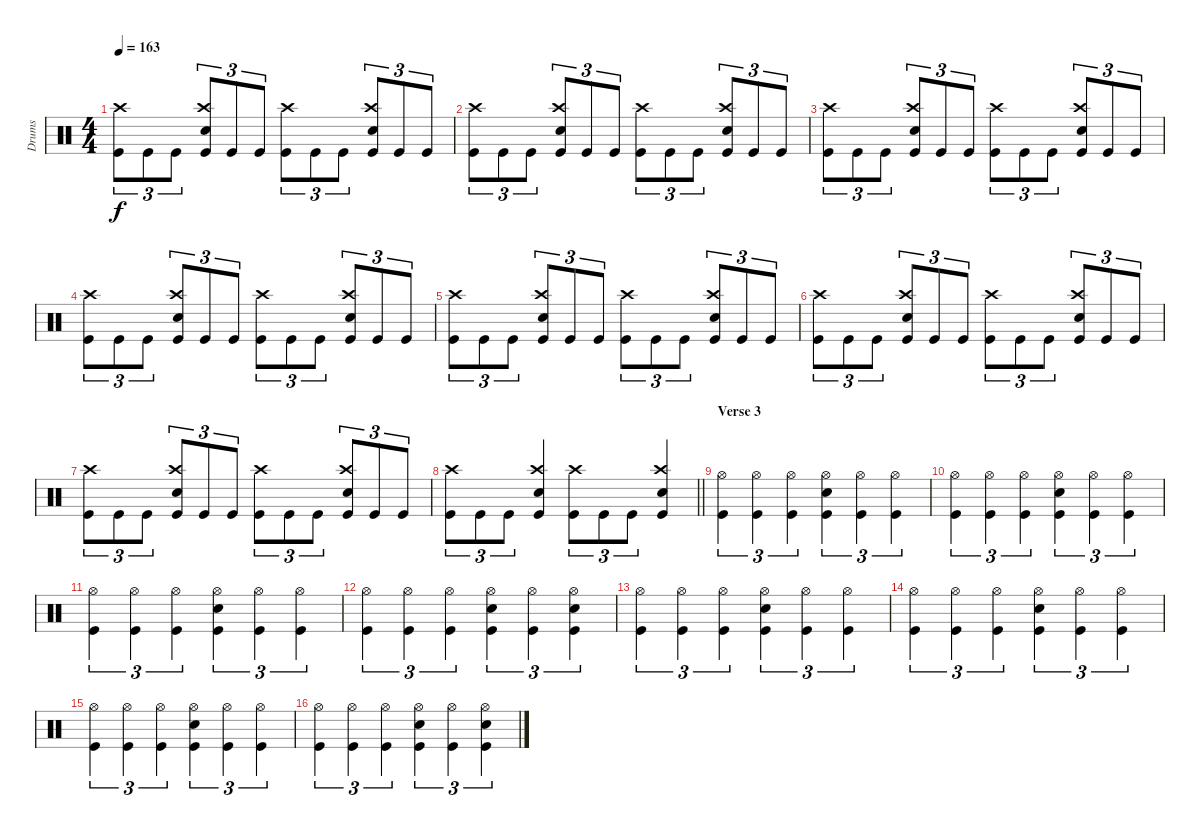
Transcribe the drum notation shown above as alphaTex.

\track ("Drums" "Drums") {instrument percussion}
\staff {score}
\articulation defaults
\ts (4 4)
\tempo 163
\clef neutral
\ks c
("Kick (hit)" "Crash high (hit)").8{tu (3 2) dy f} "Kick (hit)".8{tu (3 2)} "Kick (hit)".8{tu (3 2)} ("Kick (hit)" "Snare (hit) 2" "Crash high (hit)").8{tu (3 2)} "Kick (hit)".8{tu (3 2)} "Kick (hit)".8{tu (3 2)} ("Kick (hit)" "Crash high (hit)").8{tu (3 2)} "Kick (hit)".8{tu (3 2)} "Kick (hit)".8{tu (3 2)} ("Kick (hit)" "Snare (hit) 2" "Crash high (hit)").8{tu (3 2)} "Kick (hit)".8{tu (3 2)} "Kick (hit)".8{tu (3 2)} |
("Kick (hit)" "Crash high (hit)").8{tu (3 2)} "Kick (hit)".8{tu (3 2)} "Kick (hit)".8{tu (3 2)} ("Kick (hit)" "Snare (hit) 2" "Crash high (hit)").8{tu (3 2)} "Kick (hit)".8{tu (3 2)} "Kick (hit)".8{tu (3 2)} ("Kick (hit)" "Crash high (hit)").8{tu (3 2)} "Kick (hit)".8{tu (3 2)} "Kick (hit)".8{tu (3 2)} ("Kick (hit)" "Snare (hit) 2" "Crash high (hit)").8{tu (3 2)} "Kick (hit)".8{tu (3 2)} "Kick (hit)".8{tu (3 2)} |
("Kick (hit)" "Crash high (hit)").8{tu (3 2)} "Kick (hit)".8{tu (3 2)} "Kick (hit)".8{tu (3 2)} ("Kick (hit)" "Snare (hit) 2" "Crash high (hit)").8{tu (3 2)} "Kick (hit)".8{tu (3 2)} "Kick (hit)".8{tu (3 2)} ("Kick (hit)" "Crash high (hit)").8{tu (3 2)} "Kick (hit)".8{tu (3 2)} "Kick (hit)".8{tu (3 2)} ("Kick (hit)" "Snare (hit) 2" "Crash high (hit)").8{tu (3 2)} "Kick (hit)".8{tu (3 2)} "Kick (hit)".8{tu (3 2)} |
("Kick (hit)" "Crash high (hit)").8{tu (3 2)} "Kick (hit)".8{tu (3 2)} "Kick (hit)".8{tu (3 2)} ("Kick (hit)" "Snare (hit) 2" "Crash high (hit)").8{tu (3 2)} "Kick (hit)".8{tu (3 2)} "Kick (hit)".8{tu (3 2)} ("Kick (hit)" "Crash high (hit)").8{tu (3 2)} "Kick (hit)".8{tu (3 2)} "Kick (hit)".8{tu (3 2)} ("Kick (hit)" "Snare (hit) 2" "Crash high (hit)").8{tu (3 2)} "Kick (hit)".8{tu (3 2)} "Kick (hit)".8{tu (3 2)} |
("Kick (hit)" "Crash high (hit)").8{tu (3 2)} "Kick (hit)".8{tu (3 2)} "Kick (hit)".8{tu (3 2)} ("Kick (hit)" "Snare (hit) 2" "Crash high (hit)").8{tu (3 2)} "Kick (hit)".8{tu (3 2)} "Kick (hit)".8{tu (3 2)} ("Kick (hit)" "Crash high (hit)").8{tu (3 2)} "Kick (hit)".8{tu (3 2)} "Kick (hit)".8{tu (3 2)} ("Kick (hit)" "Snare (hit) 2" "Crash high (hit)").8{tu (3 2)} "Kick (hit)".8{tu (3 2)} "Kick (hit)".8{tu (3 2)} |
("Kick (hit)" "Crash high (hit)").8{tu (3 2)} "Kick (hit)".8{tu (3 2)} "Kick (hit)".8{tu (3 2)} ("Kick (hit)" "Snare (hit) 2" "Crash high (hit)").8{tu (3 2)} "Kick (hit)".8{tu (3 2)} "Kick (hit)".8{tu (3 2)} ("Kick (hit)" "Crash high (hit)").8{tu (3 2)} "Kick (hit)".8{tu (3 2)} "Kick (hit)".8{tu (3 2)} ("Kick (hit)" "Snare (hit) 2" "Crash high (hit)").8{tu (3 2)} "Kick (hit)".8{tu (3 2)} "Kick (hit)".8{tu (3 2)} |
("Kick (hit)" "Crash high (hit)").8{tu (3 2)} "Kick (hit)".8{tu (3 2)} "Kick (hit)".8{tu (3 2)} ("Kick (hit)" "Snare (hit) 2" "Crash high (hit)").8{tu (3 2)} "Kick (hit)".8{tu (3 2)} "Kick (hit)".8{tu (3 2)} ("Kick (hit)" "Crash high (hit)").8{tu (3 2)} "Kick (hit)".8{tu (3 2)} "Kick (hit)".8{tu (3 2)} ("Kick (hit)" "Snare (hit) 2" "Crash high (hit)").8{tu (3 2)} "Kick (hit)".8{tu (3 2)} "Kick (hit)".8{tu (3 2)} |
\barLineRight lightlight
("Kick (hit)" "Crash high (hit)").8{tu (3 2)} "Kick (hit)".8{tu (3 2)} "Kick (hit)".8{tu (3 2)} ("Kick (hit)" "Snare (hit) 2" "Crash high (hit)").4 ("Kick (hit)" "Crash high (hit)").8{tu (3 2)} "Kick (hit)".8{tu (3 2)} "Kick (hit)".8{tu (3 2)} ("Kick (hit)" "Snare (hit) 2" "Crash high (hit)").4 |
\section ("" "Verse 3")
("Kick (hit)" "Hi-Hat (open)").4{tu (3 2)} ("Kick (hit)" "Hi-Hat (open)").4{tu (3 2)} ("Kick (hit)" "Hi-Hat (open)").4{tu (3 2)} ("Snare (hit) 2" "Hi-Hat (open)" "Kick (hit)").4{tu (3 2)} ("Kick (hit)" "Hi-Hat (open)").4{tu (3 2)} ("Kick (hit)" "Hi-Hat (open)").4{tu (3 2)} |
("Kick (hit)" "Hi-Hat (open)").4{tu (3 2)} ("Kick (hit)" "Hi-Hat (open)").4{tu (3 2)} ("Kick (hit)" "Hi-Hat (open)").4{tu (3 2)} ("Snare (hit) 2" "Hi-Hat (open)" "Kick (hit)").4{tu (3 2)} ("Kick (hit)" "Hi-Hat (open)").4{tu (3 2)} ("Kick (hit)" "Hi-Hat (open)").4{tu (3 2)} |
("Kick (hit)" "Hi-Hat (open)").4{tu (3 2)} ("Kick (hit)" "Hi-Hat (open)").4{tu (3 2)} ("Kick (hit)" "Hi-Hat (open)").4{tu (3 2)} ("Snare (hit) 2" "Hi-Hat (open)" "Kick (hit)").4{tu (3 2)} ("Kick (hit)" "Hi-Hat (open)").4{tu (3 2)} ("Kick (hit)" "Hi-Hat (open)").4{tu (3 2)} |
("Kick (hit)" "Hi-Hat (open)").4{tu (3 2)} ("Kick (hit)" "Hi-Hat (open)").4{tu (3 2)} ("Kick (hit)" "Hi-Hat (open)").4{tu (3 2)} ("Snare (hit) 2" "Hi-Hat (open)" "Kick (hit)").4{tu (3 2)} ("Kick (hit)" "Hi-Hat (open)").4{tu (3 2)} ("Kick (hit)" "Hi-Hat (open)" "Snare (hit) 2").4{tu (3 2)} |
("Kick (hit)" "Hi-Hat (open)").4{tu (3 2)} ("Kick (hit)" "Hi-Hat (open)").4{tu (3 2)} ("Kick (hit)" "Hi-Hat (open)").4{tu (3 2)} ("Snare (hit) 2" "Hi-Hat (open)" "Kick (hit)").4{tu (3 2)} ("Kick (hit)" "Hi-Hat (open)").4{tu (3 2)} ("Kick (hit)" "Hi-Hat (open)").4{tu (3 2)} |
("Kick (hit)" "Hi-Hat (open)").4{tu (3 2)} ("Kick (hit)" "Hi-Hat (open)").4{tu (3 2)} ("Kick (hit)" "Hi-Hat (open)").4{tu (3 2)} ("Snare (hit) 2" "Hi-Hat (open)" "Kick (hit)").4{tu (3 2)} ("Kick (hit)" "Hi-Hat (open)").4{tu (3 2)} ("Kick (hit)" "Hi-Hat (open)").4{tu (3 2)} |
("Kick (hit)" "Hi-Hat (open)").4{tu (3 2)} ("Kick (hit)" "Hi-Hat (open)").4{tu (3 2)} ("Kick (hit)" "Hi-Hat (open)").4{tu (3 2)} ("Snare (hit) 2" "Hi-Hat (open)" "Kick (hit)").4{tu (3 2)} ("Kick (hit)" "Hi-Hat (open)").4{tu (3 2)} ("Kick (hit)" "Hi-Hat (open)").4{tu (3 2)} |
("Kick (hit)" "Hi-Hat (open)").4{tu (3 2)} ("Kick (hit)" "Hi-Hat (open)").4{tu (3 2)} ("Kick (hit)" "Hi-Hat (open)").4{tu (3 2)} ("Snare (hit) 2" "Hi-Hat (open)" "Kick (hit)").4{tu (3 2)} ("Kick (hit)" "Hi-Hat (open)").4{tu (3 2)} ("Kick (hit)" "Hi-Hat (open)" "Snare (hit) 2").4{tu (3 2)}
